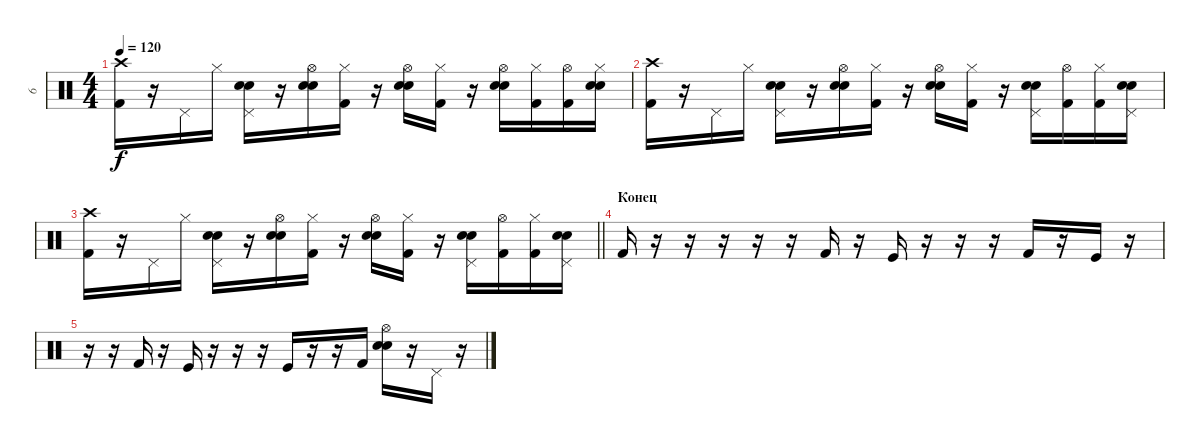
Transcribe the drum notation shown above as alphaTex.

\track ("6" "6") {instrument percussion}
\staff {score}
\articulation defaults
\ts (4 4)
\tempo 120
\clef neutral
\ks c
("Crash high (hit)" "Kick (hit) 2").16{dy f} r.16 "Pedal Hi-Hat (hit)".16 "Hi-Hat (closed)".16 ("Pedal Hi-Hat (hit)" "Snare (hit)" "Snare (hit) 2").16 r.16 ("Hi-Hat (open)" "Snare (hit)" "Snare (hit) 2").16 ("Hi-Hat (closed)" "Kick (hit) 2").16 r.16 ("Hi-Hat (open)" "Snare (hit)" "Snare (hit) 2").16 ("Hi-Hat (closed)" "Kick (hit) 2").16 r.16 ("Hi-Hat (open)" "Snare (hit)" "Snare (hit) 2").16 ("Hi-Hat (closed)" "Kick (hit) 2").16 ("Hi-Hat (open)" "Kick (hit) 2").16 ("Hi-Hat (closed)" "Snare (hit)" "Snare (hit) 2").16 |
("Crash high (hit)" "Kick (hit) 2").16 r.16 "Pedal Hi-Hat (hit)".16 "Hi-Hat (closed)".16 ("Pedal Hi-Hat (hit)" "Snare (hit)" "Snare (hit) 2").16 r.16 ("Hi-Hat (open)" "Snare (hit)" "Snare (hit) 2").16 ("Hi-Hat (closed)" "Kick (hit) 2").16 r.16 ("Hi-Hat (open)" "Snare (hit)" "Snare (hit) 2").16 ("Hi-Hat (closed)" "Kick (hit) 2").16 r.16 ("Pedal Hi-Hat (hit)" "Snare (hit)" "Snare (hit) 2").16 ("Hi-Hat (open)" "Kick (hit) 2").16 ("Hi-Hat (closed)" "Kick (hit) 2").16 ("Pedal Hi-Hat (hit)" "Snare (hit)" "Snare (hit) 2").16 |
\barLineRight lightlight
("Crash high (hit)" "Kick (hit) 2").16 r.16 "Pedal Hi-Hat (hit)".16 "Hi-Hat (closed)".16 ("Pedal Hi-Hat (hit)" "Snare (hit)" "Snare (hit) 2").16 r.16 ("Hi-Hat (open)" "Snare (hit)" "Snare (hit) 2").16 ("Hi-Hat (closed)" "Kick (hit) 2").16 r.16 ("Hi-Hat (open)" "Snare (hit)" "Snare (hit) 2").16 ("Hi-Hat (closed)" "Kick (hit) 2").16 r.16 ("Pedal Hi-Hat (hit)" "Snare (hit)" "Snare (hit) 2").16 ("Hi-Hat (open)" "Kick (hit) 2").16 ("Hi-Hat (closed)" "Kick (hit) 2").16 ("Pedal Hi-Hat (hit)" "Snare (hit)" "Snare (hit) 2").16 |
\section ("" "Конец")
"Kick (hit) 2".16 r.16 r.16 r.16 r.16 r.16 "Kick (hit) 2".16 r.16 "Kick (hit)".16 r.16 r.16 r.16 "Kick (hit) 2".16 r.16 "Kick (hit)".16 r.16 |
r.16 r.16 "Kick (hit) 2".16 r.16 "Kick (hit)".16 r.16 r.16 r.16 "Kick (hit)".16 r.16 r.16 "Kick (hit) 2".16 ("Hi-Hat (open)" "Snare (hit)" "Snare (hit) 2").16 r.16 "Pedal Hi-Hat (hit)".16 r.16
